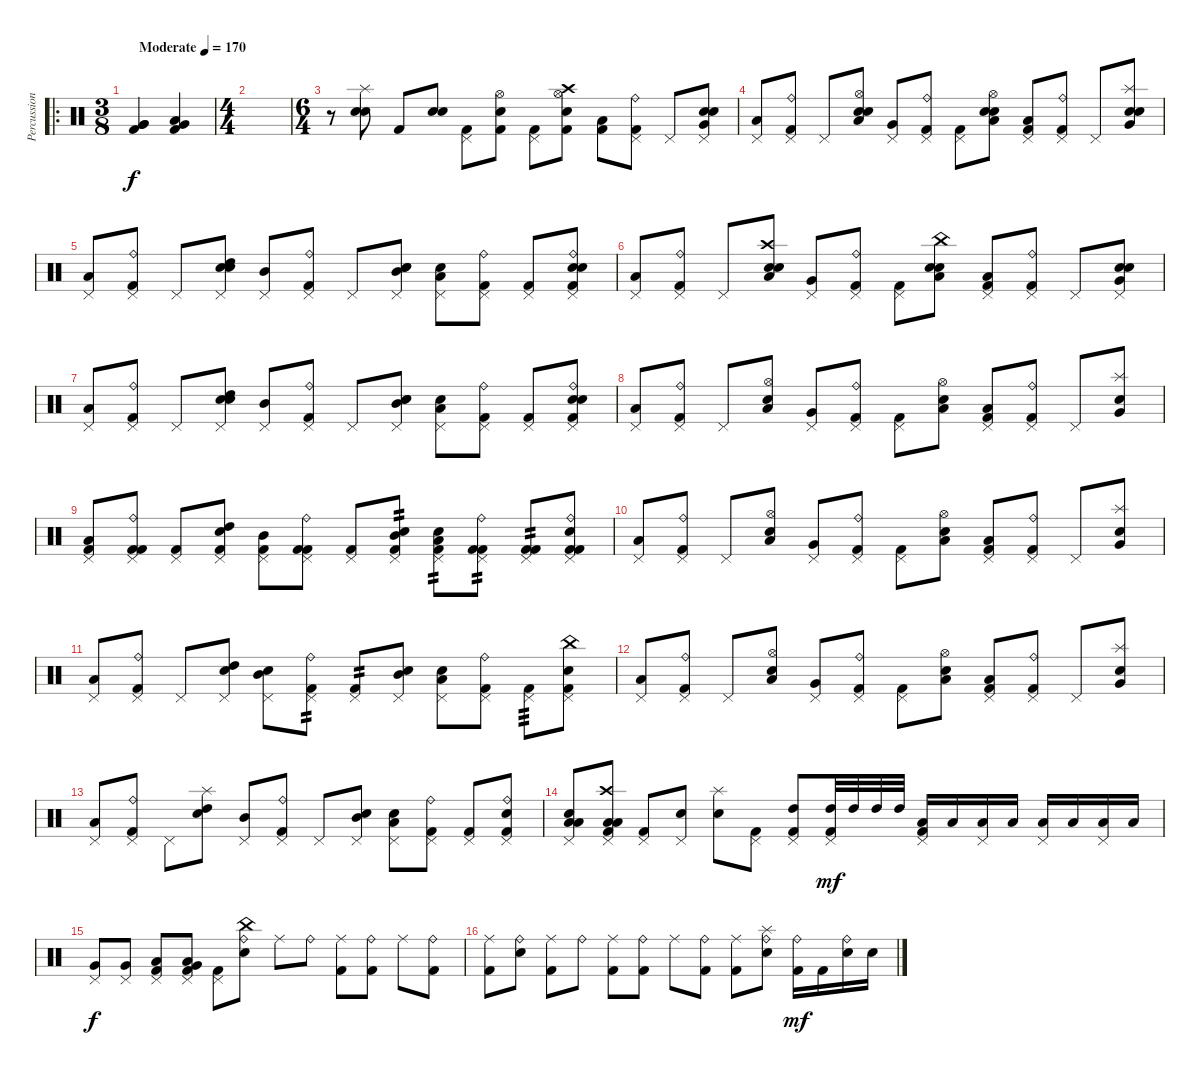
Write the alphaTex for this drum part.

\track ("Percussion" "Percussion") {instrument percussion}
\staff {score}
\articulation defaults
\ro
\ts (3 8)
\tempo (170 "Moderate")
\clef neutral
\ks c
("Very Low Tom (hit)" "Very Low Tom (hit)" "Kick (hit) 2").4{bd 240 dy f} ("Very Low Tom (hit)" "Low Floor Tom (hit)" "Kick (hit) 2").4 |
\ts (4 4)
|
\ts (6 4)
r.8 ("Splash (hit)" "Snare (hit) 2" "Electric Snare (hit)").8 "Kick (hit) 2".8 ("Snare (hit) 2" "Electric Snare (hit)").8 ("Pedal Hi-Hat (hit)" "Kick (hit) 2").8 ("Hi-Hat (open)" "Snare (hit) 2" "Kick (hit) 2").8 ("Pedal Hi-Hat (hit)" "Kick (hit) 2").8 ("Crash high (hit)" "Hi-Hat (open)" "Snare (hit) 2" "Kick (hit) 2").8 ("Low Floor Tom (hit)" "Kick (hit) 2").8 ("Ride (bell)" "Pedal Hi-Hat (hit)" "Kick (hit) 2").8 "Pedal Hi-Hat (hit)".8 ("Pedal Hi-Hat (hit)" "Snare (hit) 2" "Very Low Tom (hit)" "Electric Snare (hit)").8 |
("Pedal Hi-Hat (hit)" "Low Floor Tom (hit)").8 ("Ride (bell)" "Pedal Hi-Hat (hit)" "Kick (hit) 2").8 "Pedal Hi-Hat (hit)".8 ("Hi-Hat (open)" "Snare (hit) 2" "Low Tom (hit)" "Electric Snare (hit)").8 ("Pedal Hi-Hat (hit)" "Very Low Tom (hit)").8 ("Ride (bell)" "Pedal Hi-Hat (hit)" "Kick (hit) 2").8 ("Pedal Hi-Hat (hit)" "Kick (hit) 2").8 ("Hi-Hat (open)" "Low Floor Tom (hit)" "Snare (hit) 2" "Electric Snare (hit)").8 ("Pedal Hi-Hat (hit)" "Low Floor Tom (hit)" "Kick (hit) 2").8 ("Ride (bell)" "Pedal Hi-Hat (hit)" "Kick (hit) 2").8 "Pedal Hi-Hat (hit)".8 ("Splash (hit)" "Snare (hit) 2" "Very Low Tom (hit)" "Electric Snare (hit)").8 |
("Pedal Hi-Hat (hit)" "Low Floor Tom (hit)").8 ("Ride (bell)" "Pedal Hi-Hat (hit)" "Kick (hit) 2").8 "Pedal Hi-Hat (hit)".8 ("Pedal Hi-Hat (hit)" "High Tom (hit)" "Snare (hit) 2" "Electric Snare (hit)").8 ("Pedal Hi-Hat (hit)" "Mid Tom (hit)").8 ("Ride (bell)" "Pedal Hi-Hat (hit)" "Kick (hit) 2").8 "Pedal Hi-Hat (hit)".8 ("Pedal Hi-Hat (hit)" "Mid Tom (hit)" "Snare (hit) 2" "Electric Snare (hit)").8 ("Pedal Hi-Hat (hit)" "Low Tom (hit)" "Snare (hit) 2").8 ("Ride (bell)" "Pedal Hi-Hat (hit)" "Kick (hit) 2").8 ("Pedal Hi-Hat (hit)" "Kick (hit) 2").8 ("Ride (bell)" "Pedal Hi-Hat (hit)" "Snare (hit) 2" "Kick (hit) 2" "Electric Snare (hit)").8 |
("Pedal Hi-Hat (hit)" "Low Floor Tom (hit)").8 ("Ride (bell)" "Pedal Hi-Hat (hit)" "Kick (hit) 2").8 "Pedal Hi-Hat (hit)".8 ("Crash high (hit)" "Snare (hit) 2" "Low Tom (hit)" "Electric Snare (hit)").8 ("Pedal Hi-Hat (hit)" "Very Low Tom (hit)").8 ("Ride (bell)" "Pedal Hi-Hat (hit)" "Kick (hit) 2").8 ("Pedal Hi-Hat (hit)" "Kick (hit) 2").8 ("China (hit)" "Low Floor Tom (hit)" "Snare (hit) 2" "Electric Snare (hit)").8 ("Pedal Hi-Hat (hit)" "Low Floor Tom (hit)" "Kick (hit) 2").8 ("Ride (bell)" "Pedal Hi-Hat (hit)" "Kick (hit) 2").8 "Pedal Hi-Hat (hit)".8 ("Pedal Hi-Hat (hit)" "Snare (hit) 2" "Very Low Tom (hit)" "Electric Snare (hit)").8 |
("Pedal Hi-Hat (hit)" "Low Floor Tom (hit)").8 ("Ride (bell)" "Pedal Hi-Hat (hit)" "Kick (hit) 2").8 "Pedal Hi-Hat (hit)".8 ("Pedal Hi-Hat (hit)" "High Tom (hit)" "Snare (hit) 2" "Electric Snare (hit)").8 ("Pedal Hi-Hat (hit)" "Mid Tom (hit)").8 ("Ride (bell)" "Pedal Hi-Hat (hit)" "Kick (hit) 2").8 "Pedal Hi-Hat (hit)".8 ("Pedal Hi-Hat (hit)" "Mid Tom (hit)" "Snare (hit) 2" "Electric Snare (hit)").8 ("Pedal Hi-Hat (hit)" "Low Tom (hit)" "Snare (hit) 2").8 ("Ride (bell)" "Pedal Hi-Hat (hit)" "Kick (hit) 2").8 ("Pedal Hi-Hat (hit)" "Kick (hit) 2").8 ("Ride (bell)" "Pedal Hi-Hat (hit)" "Snare (hit) 2" "Kick (hit) 2" "Electric Snare (hit)").8 |
("Pedal Hi-Hat (hit)" "Low Floor Tom (hit)").8 ("Ride (bell)" "Pedal Hi-Hat (hit)" "Kick (hit) 2").8 "Pedal Hi-Hat (hit)".8 ("Hi-Hat (open)" "Snare (hit) 2" "Low Tom (hit)").8 ("Pedal Hi-Hat (hit)" "Very Low Tom (hit)").8 ("Ride (bell)" "Pedal Hi-Hat (hit)" "Kick (hit) 2").8 ("Pedal Hi-Hat (hit)" "Kick (hit) 2").8 ("Hi-Hat (open)" "Low Floor Tom (hit)" "Snare (hit) 2").8 ("Pedal Hi-Hat (hit)" "Low Floor Tom (hit)" "Kick (hit) 2").8 ("Ride (bell)" "Pedal Hi-Hat (hit)" "Kick (hit) 2").8 "Pedal Hi-Hat (hit)".8 ("Splash (hit)" "Snare (hit) 2" "Very Low Tom (hit)").8 |
("Pedal Hi-Hat (hit)" "Low Floor Tom (hit)" "Kick (hit) 2").8 ("Ride (bell)" "Pedal Hi-Hat (hit)" "Kick (hit) 2" "Kick (hit) 2").8 ("Pedal Hi-Hat (hit)" "Kick (hit) 2").8 ("Pedal Hi-Hat (hit)" "High Tom (hit)" "Snare (hit) 2" "Kick (hit) 2").8 ("Pedal Hi-Hat (hit)" "Mid Tom (hit)" "Kick (hit) 2").8 ("Ride (bell)" "Pedal Hi-Hat (hit)" "Kick (hit) 2" "Kick (hit) 2").8 ("Pedal Hi-Hat (hit)" "Kick (hit) 2").8 ("Pedal Hi-Hat (hit)" "Mid Tom (hit)" "Snare (hit) 2" "Kick (hit) 2").8{tp 2} ("Pedal Hi-Hat (hit)" "Low Tom (hit)" "Snare (hit) 2" "Kick (hit) 2").8{tp 2} ("Ride (bell)" "Pedal Hi-Hat (hit)" "Kick (hit) 2" "Kick (hit) 2").8{tp 2} ("Pedal Hi-Hat (hit)" "Kick (hit) 2" "Kick (hit) 2").8{tp 2} ("Ride (bell)" "Pedal Hi-Hat (hit)" "Snare (hit) 2" "Kick (hit) 2" "Kick (hit) 2").8 |
("Pedal Hi-Hat (hit)" "Low Floor Tom (hit)").8 ("Ride (bell)" "Pedal Hi-Hat (hit)" "Kick (hit) 2").8 "Pedal Hi-Hat (hit)".8 ("Hi-Hat (open)" "Snare (hit) 2" "Low Tom (hit)").8 ("Pedal Hi-Hat (hit)" "Very Low Tom (hit)").8 ("Ride (bell)" "Pedal Hi-Hat (hit)" "Kick (hit) 2").8 ("Pedal Hi-Hat (hit)" "Kick (hit) 2").8 ("Hi-Hat (open)" "Low Floor Tom (hit)" "Snare (hit) 2").8 ("Pedal Hi-Hat (hit)" "Low Floor Tom (hit)" "Kick (hit) 2").8 ("Ride (bell)" "Pedal Hi-Hat (hit)" "Kick (hit) 2").8 "Pedal Hi-Hat (hit)".8 ("Splash (hit)" "Snare (hit) 2" "Very Low Tom (hit)").8 |
("Pedal Hi-Hat (hit)" "Low Floor Tom (hit)").8 ("Ride (bell)" "Pedal Hi-Hat (hit)" "Kick (hit) 2").8 "Pedal Hi-Hat (hit)".8 ("Pedal Hi-Hat (hit)" "High Tom (hit)" "Snare (hit) 2").8 ("Pedal Hi-Hat (hit)" "Mid Tom (hit)" "Snare (hit) 2").8 ("Ride (bell)" "Pedal Hi-Hat (hit)" "Kick (hit) 2").8{tp 2} ("Pedal Hi-Hat (hit)" "Kick (hit) 2").8{tp 2} ("Pedal Hi-Hat (hit)" "Mid Tom (hit)" "Snare (hit) 2").8 ("Pedal Hi-Hat (hit)" "Low Tom (hit)" "Snare (hit) 2").8 ("Ride (bell)" "Pedal Hi-Hat (hit)" "Kick (hit) 2").8 ("Pedal Hi-Hat (hit)" "Kick (hit) 2").8{tp 3} ("China (hit)" "Pedal Hi-Hat (hit)" "Snare (hit) 2" "Kick (hit) 2").8 |
("Pedal Hi-Hat (hit)" "Low Floor Tom (hit)").8 ("Ride (bell)" "Pedal Hi-Hat (hit)" "Kick (hit) 2").8 "Pedal Hi-Hat (hit)".8 ("Hi-Hat (open)" "Snare (hit) 2" "Low Tom (hit)").8 ("Pedal Hi-Hat (hit)" "Very Low Tom (hit)").8 ("Ride (bell)" "Pedal Hi-Hat (hit)" "Kick (hit) 2").8 ("Pedal Hi-Hat (hit)" "Kick (hit) 2").8 ("Hi-Hat (open)" "Low Floor Tom (hit)" "Snare (hit) 2").8 ("Pedal Hi-Hat (hit)" "Low Floor Tom (hit)" "Kick (hit) 2").8 ("Ride (bell)" "Pedal Hi-Hat (hit)" "Kick (hit) 2").8 "Pedal Hi-Hat (hit)".8 ("Splash (hit)" "Snare (hit) 2" "Very Low Tom (hit)").8 |
("Pedal Hi-Hat (hit)" "Low Floor Tom (hit)").8 ("Ride (bell)" "Pedal Hi-Hat (hit)" "Kick (hit) 2").8 "Pedal Hi-Hat (hit)".8 ("Splash (hit)" "High Tom (hit)" "Snare (hit) 2").8 ("Pedal Hi-Hat (hit)" "Mid Tom (hit)").8 ("Ride (bell)" "Pedal Hi-Hat (hit)" "Kick (hit) 2").8 "Pedal Hi-Hat (hit)".8 ("Pedal Hi-Hat (hit)" "Mid Tom (hit)" "Snare (hit) 2").8 ("Pedal Hi-Hat (hit)" "Low Tom (hit)" "Snare (hit) 2").8 ("Ride (bell)" "Pedal Hi-Hat (hit)" "Kick (hit) 2").8 ("Pedal Hi-Hat (hit)" "Kick (hit) 2").8 ("Ride (bell)" "Pedal Hi-Hat (hit)" "Snare (hit) 2" "Kick (hit) 2").8 |
("Pedal Hi-Hat (hit)" "Low Floor Tom (hit)" "Low Tom (hit)" "Snare (hit) 2").8 ("Crash high (hit)" "Pedal Hi-Hat (hit)" "Low Floor Tom (hit)" "Low Tom (hit)" "Kick (hit) 2").8 ("Pedal Hi-Hat (hit)" "Kick (hit) 2").8 ("Pedal Hi-Hat (hit)" "Snare (hit) 2").8 ("Splash (hit)" "Snare (hit) 2").8 ("Pedal Hi-Hat (hit)" "Kick (hit) 2").8 ("Pedal Hi-Hat (hit)" "High Tom (hit)" "Kick (hit) 2").8 ("Pedal Hi-Hat (hit)" "High Tom (hit)" "Kick (hit) 2").32{dy mf} "High Tom (hit)".32 "High Tom (hit)".32 "High Tom (hit)".32 ("Pedal Hi-Hat (hit)" "Low Tom (hit)" "Kick (hit) 2").16 "Low Tom (hit)".16 ("Pedal Hi-Hat (hit)" "Low Tom (hit)").16 "Low Tom (hit)".16 ("Pedal Hi-Hat (hit)" "Low Tom (hit)").16 "Low Tom (hit)".16 ("Pedal Hi-Hat (hit)" "Low Tom (hit)").16 "Low Tom (hit)".16 |
("Pedal Hi-Hat (hit)" "Very Low Tom (hit)").8{dy f} ("Pedal Hi-Hat (hit)" "Very Low Tom (hit)").8 ("Pedal Hi-Hat (hit)" "Low Floor Tom (hit)" "Kick (hit) 2").8 ("Pedal Hi-Hat (hit)" "Very Low Tom (hit)" "Low Floor Tom (hit)" "Kick (hit) 2").8 ("Pedal Hi-Hat (hit)" "Kick (hit) 2").8 ("Ride (bell)" "China (hit)" "Snare (hit) 2").8 "Ride (middle)".8 "Ride (bell)".8 ("Ride (middle)" "Kick (hit) 2").8 ("Ride (bell)" "Kick (hit) 2").8 "Ride (middle)".8 ("Ride (bell)" "Kick (hit) 2").8 |
("Ride (middle)" "Kick (hit) 2").8 ("Ride (bell)" "Snare (hit) 2").8 ("Ride (middle)" "Kick (hit) 2").8 "Ride (bell)".8 ("Ride (middle)" "Kick (hit) 2").8 ("Ride (bell)" "Kick (hit) 2").8 "Ride (middle)".8 ("Ride (bell)" "Kick (hit) 2").8 ("Ride (middle)" "Kick (hit) 2").8 ("Splash (hit)" "Ride (bell)" "Snare (hit) 2").8 ("Ride (bell)" "Kick (hit) 2").16{dy mf} "Kick (hit) 2".16 ("Ride (bell)" "Snare (hit) 2").16 "Snare (hit) 2".16
